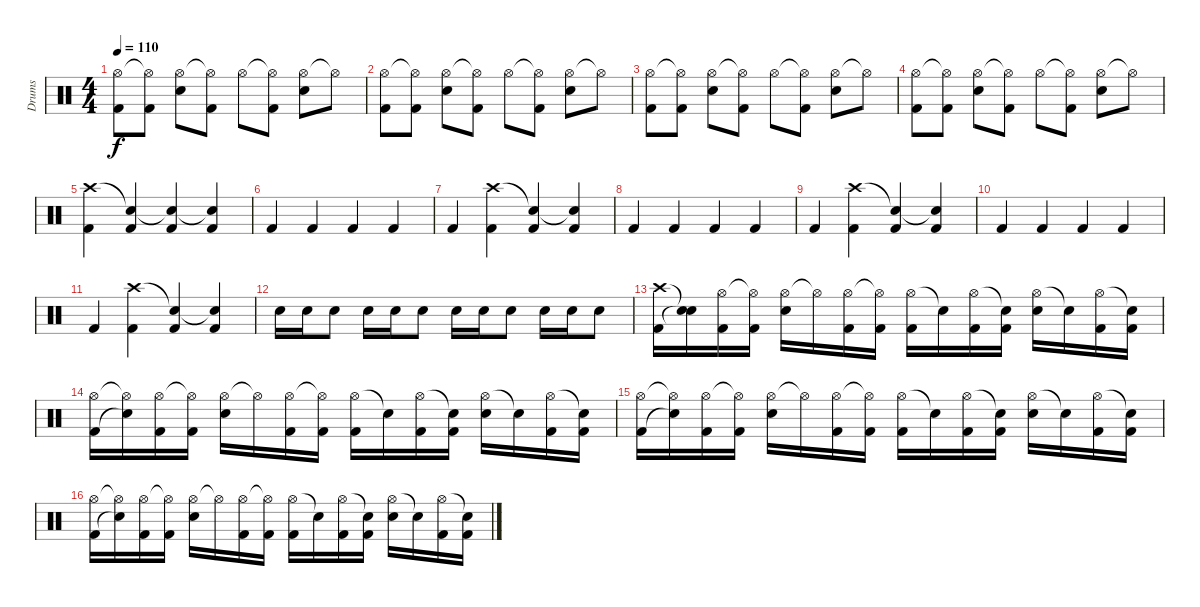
\track ("Drums" "Drums") {instrument percussion}
\staff {score}
\articulation defaults
\ts (4 4)
\tempo 110
\clef neutral
\ks c
("Hi-Hat (open)" "Kick (hit) 2").8{dy f} ("Hi-Hat (open)"{t} "Kick (hit) 2").8 ("Hi-Hat (open)" "Snare (hit) 2").8 ("Hi-Hat (open)"{t} "Kick (hit) 2").8 "Hi-Hat (open)".8 ("Hi-Hat (open)"{t} "Kick (hit) 2").8 ("Hi-Hat (open)" "Snare (hit) 2").8 "Hi-Hat (open)"{t}.8 |
("Hi-Hat (open)" "Kick (hit) 2").8 ("Hi-Hat (open)"{t} "Kick (hit) 2").8 ("Hi-Hat (open)" "Snare (hit) 2").8 ("Hi-Hat (open)"{t} "Kick (hit) 2").8 "Hi-Hat (open)".8 ("Hi-Hat (open)"{t} "Kick (hit) 2").8 ("Hi-Hat (open)" "Snare (hit) 2").8 "Hi-Hat (open)"{t}.8 |
("Hi-Hat (open)" "Kick (hit) 2").8 ("Hi-Hat (open)"{t} "Kick (hit) 2").8 ("Hi-Hat (open)" "Snare (hit) 2").8 ("Hi-Hat (open)"{t} "Kick (hit) 2").8 "Hi-Hat (open)".8 ("Hi-Hat (open)"{t} "Kick (hit) 2").8 ("Hi-Hat (open)" "Snare (hit) 2").8 "Hi-Hat (open)"{t}.8 |
("Hi-Hat (open)" "Kick (hit) 2").8 ("Hi-Hat (open)"{t} "Kick (hit) 2").8 ("Hi-Hat (open)" "Snare (hit) 2").8 ("Hi-Hat (open)"{t} "Kick (hit) 2").8 "Hi-Hat (open)".8 ("Hi-Hat (open)"{t} "Kick (hit) 2").8 ("Hi-Hat (open)" "Snare (hit) 2").8 "Hi-Hat (open)"{t}.8 |
("Crash high (hit)" "Kick (hit) 2").4 ("Snare (hit)"{t} "Kick (hit) 2").4 ("Snare (hit)"{t} "Kick (hit) 2").4 ("Snare (hit)"{t} "Kick (hit) 2").4 |
"Kick (hit) 2".4 "Kick (hit) 2".4 "Kick (hit) 2".4 "Kick (hit) 2".4 |
"Kick (hit) 2".4 ("Crash high (hit)" "Kick (hit) 2").4 ("Snare (hit)"{t} "Kick (hit) 2").4 ("Snare (hit)"{t} "Kick (hit) 2").4 |
"Kick (hit) 2".4 "Kick (hit) 2".4 "Kick (hit) 2".4 "Kick (hit) 2".4 |
"Kick (hit) 2".4 ("Crash high (hit)" "Kick (hit) 2").4 ("Snare (hit)"{t} "Kick (hit) 2").4 ("Snare (hit)"{t} "Kick (hit) 2").4 |
"Kick (hit) 2".4 "Kick (hit) 2".4 "Kick (hit) 2".4 "Kick (hit) 2".4 |
"Kick (hit) 2".4 ("Crash high (hit)" "Kick (hit) 2").4 ("Snare (hit)"{t} "Kick (hit) 2").4 ("Snare (hit)"{t} "Kick (hit) 2").4 |
"Snare (hit) 2".16 "Snare (hit) 2".16 "Snare (hit) 2".8 "Snare (hit) 2".16 "Snare (hit) 2".16 "Snare (hit) 2".8 "Snare (hit) 2".16 "Snare (hit) 2".16 "Snare (hit) 2".8 "Snare (hit) 2".16 "Snare (hit) 2".16 "Snare (hit) 2".8 |
("Crash high (hit)" "Kick (hit) 2").16 ("Snare (hit)"{t} "Snare (hit)"{t}).16 ("Hi-Hat (open)" "Kick (hit) 2").16 ("Hi-Hat (open)"{t} "Kick (hit) 2").16 ("Hi-Hat (open)" "Snare (hit) 2").16 "Hi-Hat (open)"{t}.16 ("Hi-Hat (open)" "Kick (hit) 2").16 ("Hi-Hat (open)"{t} "Kick (hit) 2").16 ("Hi-Hat (open)" "Kick (hit) 2").16 "Snare (hit)"{t}.16 ("Hi-Hat (open)" "Kick (hit) 2").16 ("Snare (hit)"{t} "Kick (hit) 2").16 ("Hi-Hat (open)" "Snare (hit) 2").16 "Snare (hit)"{t}.16 ("Hi-Hat (open)" "Kick (hit) 2").16 ("Snare (hit)"{t} "Kick (hit) 2").16 |
("Hi-Hat (open)" "Kick (hit) 2").16 ("Hi-Hat (open)"{t} "Snare (hit)"{t}).16 ("Hi-Hat (open)" "Kick (hit) 2").16 ("Hi-Hat (open)"{t} "Kick (hit) 2").16 ("Hi-Hat (open)" "Snare (hit) 2").16 "Hi-Hat (open)"{t}.16 ("Hi-Hat (open)" "Kick (hit) 2").16 ("Hi-Hat (open)"{t} "Kick (hit) 2").16 ("Hi-Hat (open)" "Kick (hit) 2").16 "Snare (hit)"{t}.16 ("Hi-Hat (open)" "Kick (hit) 2").16 ("Snare (hit)"{t} "Kick (hit) 2").16 ("Hi-Hat (open)" "Snare (hit) 2").16 "Snare (hit)"{t}.16 ("Hi-Hat (open)" "Kick (hit) 2").16 ("Snare (hit)"{t} "Kick (hit) 2").16 |
("Hi-Hat (open)" "Kick (hit) 2").16 ("Hi-Hat (open)"{t} "Snare (hit)"{t}).16 ("Hi-Hat (open)" "Kick (hit) 2").16 ("Hi-Hat (open)"{t} "Kick (hit) 2").16 ("Hi-Hat (open)" "Snare (hit) 2").16 "Hi-Hat (open)"{t}.16 ("Hi-Hat (open)" "Kick (hit) 2").16 ("Hi-Hat (open)"{t} "Kick (hit) 2").16 ("Hi-Hat (open)" "Kick (hit) 2").16 "Snare (hit)"{t}.16 ("Hi-Hat (open)" "Kick (hit) 2").16 ("Snare (hit)"{t} "Kick (hit) 2").16 ("Hi-Hat (open)" "Snare (hit) 2").16 "Snare (hit)"{t}.16 ("Hi-Hat (open)" "Kick (hit) 2").16 ("Snare (hit)"{t} "Kick (hit) 2").16 |
("Hi-Hat (open)" "Kick (hit) 2").16 ("Hi-Hat (open)"{t} "Snare (hit)"{t}).16 ("Hi-Hat (open)" "Kick (hit) 2").16 ("Hi-Hat (open)"{t} "Kick (hit) 2").16 ("Hi-Hat (open)" "Snare (hit) 2").16 "Hi-Hat (open)"{t}.16 ("Hi-Hat (open)" "Kick (hit) 2").16 ("Hi-Hat (open)"{t} "Kick (hit) 2").16 ("Hi-Hat (open)" "Kick (hit) 2").16 "Snare (hit)"{t}.16 ("Hi-Hat (open)" "Kick (hit) 2").16 ("Snare (hit)"{t} "Kick (hit) 2").16 ("Hi-Hat (open)" "Snare (hit) 2").16 "Snare (hit)"{t}.16 ("Hi-Hat (open)" "Kick (hit) 2").16 ("Snare (hit)"{t} "Kick (hit) 2").16
